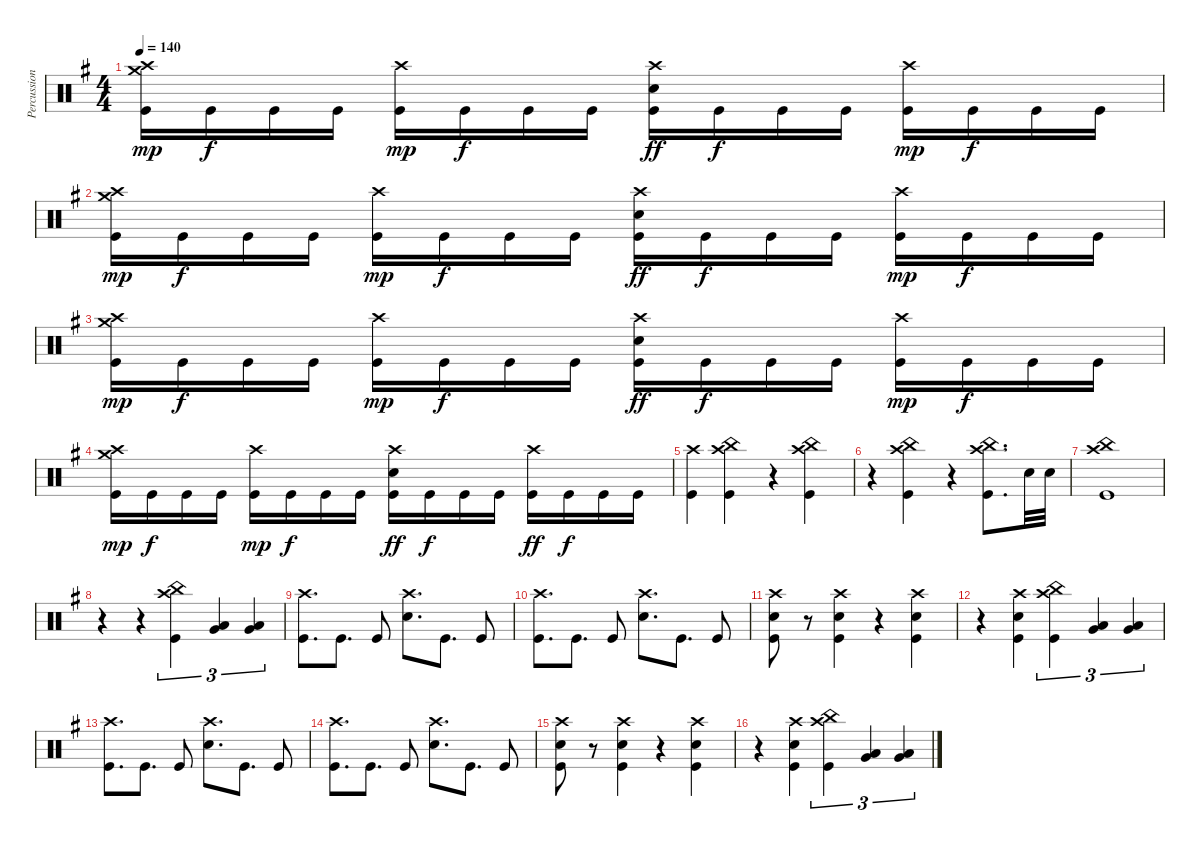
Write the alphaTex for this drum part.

\track ("Percussion" "Percussion") {instrument percussion}
\staff {score}
\articulation defaults
\ts (4 4)
\tempo 140
\clef neutral
\ks eminor
("Crash medium (hit)" "Crash high (hit)" "Kick (hit)").16{dy mp} "Kick (hit)".16{dy f} "Kick (hit)".16 "Kick (hit)".16 ("Crash high (hit)" "Kick (hit)").16{dy mp} "Kick (hit)".16{dy f} "Kick (hit)".16 "Kick (hit)".16 ("Crash high (hit)" "Snare (hit) 2" "Kick (hit)").16{dy ff} "Kick (hit)".16{dy f} "Kick (hit)".16 "Kick (hit)".16 ("Crash high (hit)" "Kick (hit)").16{dy mp} "Kick (hit)".16{dy f} "Kick (hit)".16 "Kick (hit)".16 |
("Crash medium (hit)" "Crash high (hit)" "Kick (hit)").16{dy mp} "Kick (hit)".16{dy f} "Kick (hit)".16 "Kick (hit)".16 ("Crash high (hit)" "Kick (hit)").16{dy mp} "Kick (hit)".16{dy f} "Kick (hit)".16 "Kick (hit)".16 ("Crash high (hit)" "Snare (hit) 2" "Kick (hit)").16{dy ff} "Kick (hit)".16{dy f} "Kick (hit)".16 "Kick (hit)".16 ("Crash high (hit)" "Kick (hit)").16{dy mp} "Kick (hit)".16{dy f} "Kick (hit)".16 "Kick (hit)".16 |
("Crash medium (hit)" "Crash high (hit)" "Kick (hit)").16{dy mp} "Kick (hit)".16{dy f} "Kick (hit)".16 "Kick (hit)".16 ("Crash high (hit)" "Kick (hit)").16{dy mp} "Kick (hit)".16{dy f} "Kick (hit)".16 "Kick (hit)".16 ("Crash high (hit)" "Snare (hit) 2" "Kick (hit)").16{dy ff} "Kick (hit)".16{dy f} "Kick (hit)".16 "Kick (hit)".16 ("Crash high (hit)" "Kick (hit)").16{dy mp} "Kick (hit)".16{dy f} "Kick (hit)".16 "Kick (hit)".16 |
("Crash medium (hit)" "Crash high (hit)" "Kick (hit)").16{dy mp} "Kick (hit)".16{dy f} "Kick (hit)".16 "Kick (hit)".16 ("Crash high (hit)" "Kick (hit)").16{dy mp} "Kick (hit)".16{dy f} "Kick (hit)".16 "Kick (hit)".16 ("Crash high (hit)" "Snare (hit) 2" "Kick (hit)").16{dy ff} "Kick (hit)".16{dy f} "Kick (hit)".16 "Kick (hit)".16 ("Crash high (hit)" "Kick (hit)").16{dy ff} "Kick (hit)".16{dy f} "Kick (hit)".16 "Kick (hit)".16 |
("Crash high (hit)" "Kick (hit)").4 ("China (hit)" "Crash high (hit)" "Kick (hit)").4 r.4 ("China (hit)" "Crash high (hit)" "Kick (hit)").4 |
r.4 ("China (hit)" "Crash high (hit)" "Kick (hit)").4 r.4 ("China (hit)" "Crash high (hit)" "Kick (hit)").8{d} "Snare (hit) 2".32 "Snare (hit) 2".32 |
("Crash high (hit)" "China (hit)" "Kick (hit)").1 |
r.4 r.4 ("Crash high (hit)" "China (hit)" "Kick (hit)").4{tu (3 2)} ("Low Tom (hit)" "Very Low Tom (hit)").4{tu (3 2)} ("Very Low Tom (hit)" "Low Floor Tom (hit)").4{tu (3 2)} |
("Crash high (hit)" "Kick (hit)").8{d} "Kick (hit)".8{d} "Kick (hit)".8 ("Crash high (hit)" "Snare (hit) 2").8{d} "Kick (hit)".8{d} "Kick (hit)".8 |
("Crash high (hit)" "Kick (hit)").8{d} "Kick (hit)".8{d} "Kick (hit)".8 ("Crash high (hit)" "Snare (hit) 2").8{d} "Kick (hit)".8{d} "Kick (hit)".8 |
("Crash high (hit)" "Snare (hit) 2" "Kick (hit)").8 r.8 ("Crash high (hit)" "Snare (hit) 2" "Kick (hit)").4 r.4 ("Crash high (hit)" "Snare (hit) 2" "Kick (hit)").4 |
r.4 ("Crash high (hit)" "Snare (hit) 2" "Kick (hit)").4 ("Crash high (hit)" "China (hit)" "Kick (hit)").4{tu (3 2)} ("Low Tom (hit)" "Very Low Tom (hit)").4{tu (3 2)} ("Very Low Tom (hit)" "Low Floor Tom (hit)").4{tu (3 2)} |
("Crash high (hit)" "Kick (hit)").8{d} "Kick (hit)".8{d} "Kick (hit)".8 ("Crash high (hit)" "Snare (hit) 2").8{d} "Kick (hit)".8{d} "Kick (hit)".8 |
("Crash high (hit)" "Kick (hit)").8{d} "Kick (hit)".8{d} "Kick (hit)".8 ("Crash high (hit)" "Snare (hit) 2").8{d} "Kick (hit)".8{d} "Kick (hit)".8 |
("Crash high (hit)" "Snare (hit) 2" "Kick (hit)").8 r.8 ("Crash high (hit)" "Snare (hit) 2" "Kick (hit)").4 r.4 ("Crash high (hit)" "Snare (hit) 2" "Kick (hit)").4 |
r.4 ("Crash high (hit)" "Snare (hit) 2" "Kick (hit)").4 ("Crash high (hit)" "China (hit)" "Kick (hit)").4{tu (3 2)} ("Low Tom (hit)" "Very Low Tom (hit)").4{tu (3 2)} ("Very Low Tom (hit)" "Low Floor Tom (hit)").4{tu (3 2)}
